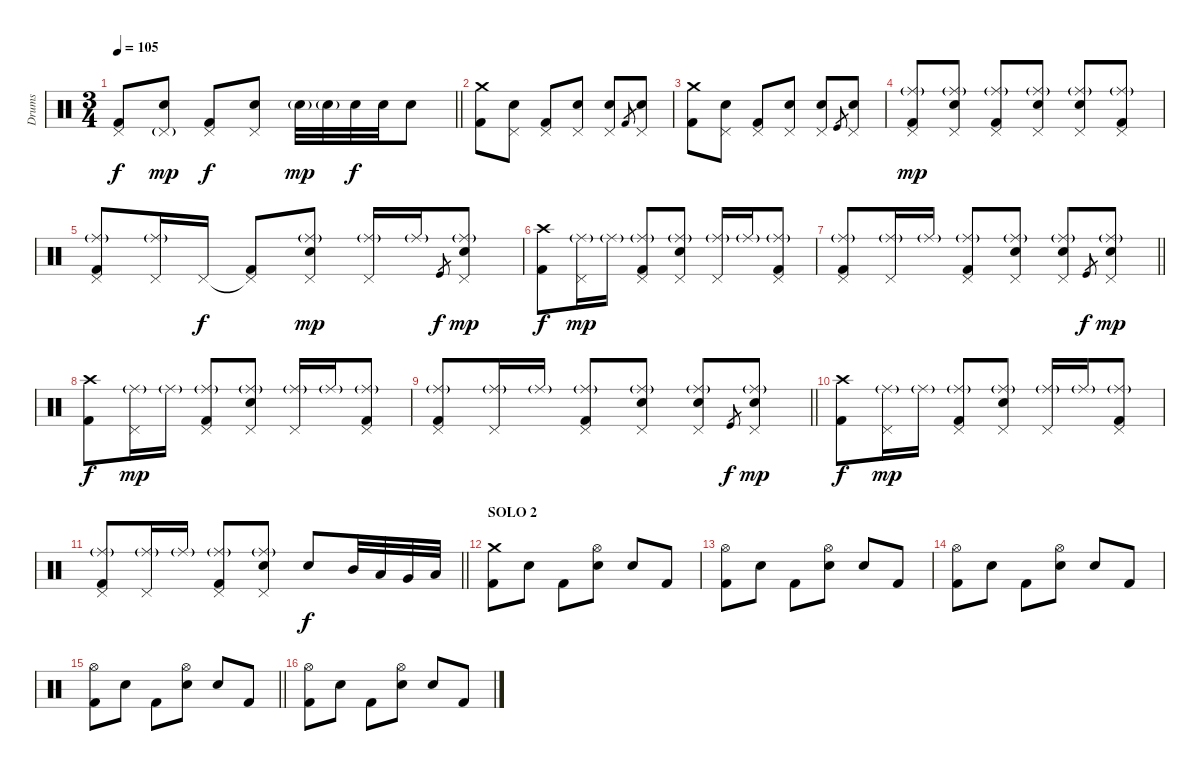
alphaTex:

\track ("Drums" "Drums") {instrument percussion}
\staff {score}
\articulation defaults
\ts (3 4)
\tempo 105
\clef neutral
\barLineRight lightlight
\ks c
("Pedal Hi-Hat (hit)" "Kick (hit) 2").8{dy f} ("Pedal Hi-Hat (hit)"{g} "Snare (hit)").8{dy mp} ("Pedal Hi-Hat (hit)" "Kick (hit) 2").8{dy f} ("Pedal Hi-Hat (hit)" "Electric Snare (hit)").8 "Electric Snare (hit)"{g}.32{dy mp} "Electric Snare (hit)"{g}.32 "Electric Snare (hit)".32{dy f} "Electric Snare (hit)".32 "Electric Snare (hit)".8 |
\section ("" "")
("Crash medium (hit)" "Kick (hit) 2").8 ("Pedal Hi-Hat (hit)" "Snare (hit)").8 ("Pedal Hi-Hat (hit)" "Kick (hit) 2").8 ("Pedal Hi-Hat (hit)" "Electric Snare (hit)").8 ("Pedal Hi-Hat (hit)" "Snare (hit)").8 "Kick (hit) 2".8{gr} ("Pedal Hi-Hat (hit)" "Electric Snare (hit)").8 |
("Crash medium (hit)" "Kick (hit) 2").8 ("Pedal Hi-Hat (hit)" "Snare (hit)").8 ("Pedal Hi-Hat (hit)" "Kick (hit) 2").8 ("Pedal Hi-Hat (hit)" "Electric Snare (hit)").8 ("Pedal Hi-Hat (hit)" "Snare (hit)").8 "Kick (hit)".8{gr} ("Pedal Hi-Hat (hit)" "Electric Snare (hit)").8 |
("Ride (middle)"{g} "Pedal Hi-Hat (hit)" "Kick (hit) 2").8{dy mp} ("Ride (middle)"{g} "Pedal Hi-Hat (hit)" "Snare (hit)").8 ("Ride (middle)"{g} "Pedal Hi-Hat (hit)" "Kick (hit) 2").8 ("Ride (middle)"{g} "Pedal Hi-Hat (hit)" "Electric Snare (hit)").8 ("Ride (middle)"{g} "Pedal Hi-Hat (hit)" "Snare (hit)").8 ("Ride (middle)"{g} "Pedal Hi-Hat (hit)" "Kick (hit) 2").8 |
("Ride (middle)"{g} "Pedal Hi-Hat (hit)" "Kick (hit) 2").8 ("Ride (middle)"{g} "Pedal Hi-Hat (hit)").16 "Pedal Hi-Hat (hit)".16{dy f} ("Pedal Hi-Hat (hit)"{t} "Kick (hit) 2").8 ("Ride (middle)"{g} "Pedal Hi-Hat (hit)" "Electric Snare (hit)").8{dy mp} ("Ride (middle)"{g} "Pedal Hi-Hat (hit)").16 "Ride (middle)"{g}.16 "Kick (hit)".8{gr dy f} ("Ride (middle)"{g} "Pedal Hi-Hat (hit)" "Electric Snare (hit)").8{dy mp} |
("Crash high (hit)" "Kick (hit) 2").8{dy f} ("Ride (middle)"{g} "Pedal Hi-Hat (hit)").16{dy mp} "Ride (middle)"{g}.16 ("Ride (middle)"{g} "Pedal Hi-Hat (hit)" "Kick (hit) 2").8 ("Ride (middle)"{g} "Pedal Hi-Hat (hit)" "Electric Snare (hit)").8 ("Ride (middle)"{g} "Pedal Hi-Hat (hit)").16 "Ride (middle)"{g}.16 ("Ride (middle)"{g} "Pedal Hi-Hat (hit)" "Kick (hit) 2").8 |
\barLineRight lightlight
("Ride (middle)"{g} "Pedal Hi-Hat (hit)" "Kick (hit) 2").8 ("Ride (middle)"{g} "Pedal Hi-Hat (hit)").16 "Ride (middle)"{g}.16 ("Ride (middle)"{g} "Pedal Hi-Hat (hit)" "Kick (hit) 2").8 ("Ride (middle)"{g} "Pedal Hi-Hat (hit)" "Electric Snare (hit)").8 ("Ride (middle)"{g} "Pedal Hi-Hat (hit)" "Snare (hit)").8 "Kick (hit)".8{gr dy f} ("Ride (middle)"{g} "Pedal Hi-Hat (hit)" "Electric Snare (hit)").8{dy mp} |
("Crash high (hit)" "Kick (hit) 2").8{dy f} ("Ride (middle)"{g} "Pedal Hi-Hat (hit)").16{dy mp} "Ride (middle)"{g}.16 ("Ride (middle)"{g} "Pedal Hi-Hat (hit)" "Kick (hit) 2").8 ("Ride (middle)"{g} "Pedal Hi-Hat (hit)" "Electric Snare (hit)").8 ("Ride (middle)"{g} "Pedal Hi-Hat (hit)").16 "Ride (middle)"{g}.16 ("Ride (middle)"{g} "Pedal Hi-Hat (hit)" "Kick (hit) 2").8 |
\barLineRight lightlight
("Ride (middle)"{g} "Pedal Hi-Hat (hit)" "Kick (hit) 2").8 ("Ride (middle)"{g} "Pedal Hi-Hat (hit)").16 "Ride (middle)"{g}.16 ("Ride (middle)"{g} "Pedal Hi-Hat (hit)" "Kick (hit) 2").8 ("Ride (middle)"{g} "Pedal Hi-Hat (hit)" "Electric Snare (hit)").8 ("Ride (middle)"{g} "Pedal Hi-Hat (hit)" "Snare (hit)").8 "Kick (hit)".8{gr dy f} ("Ride (middle)"{g} "Pedal Hi-Hat (hit)" "Electric Snare (hit)").8{dy mp} |
("Crash high (hit)" "Kick (hit) 2").8{dy f} ("Ride (middle)"{g} "Pedal Hi-Hat (hit)").16{dy mp} "Ride (middle)"{g}.16 ("Ride (middle)"{g} "Pedal Hi-Hat (hit)" "Kick (hit) 2").8 ("Ride (middle)"{g} "Pedal Hi-Hat (hit)" "Electric Snare (hit)").8 ("Ride (middle)"{g} "Pedal Hi-Hat (hit)").16 "Ride (middle)"{g}.16 ("Ride (middle)"{g} "Pedal Hi-Hat (hit)" "Kick (hit) 2").8 |
\barLineRight lightlight
("Ride (middle)"{g} "Pedal Hi-Hat (hit)" "Kick (hit) 2").8 ("Ride (middle)"{g} "Pedal Hi-Hat (hit)").16 "Ride (middle)"{g}.16 ("Ride (middle)"{g} "Pedal Hi-Hat (hit)" "Kick (hit) 2").8 ("Ride (middle)"{g} "Pedal Hi-Hat (hit)" "Electric Snare (hit)").8 "Electric Snare (hit)".8{dy f} "Mid Tom (hit)".32 "Low Tom (hit)".32 "Very Low Tom (hit)".32 "Low Floor Tom (hit)".32 |
\section ("" "SOLO 2")
("Crash medium (hit)" "Kick (hit) 2").8 "Snare (hit)".8 "Kick (hit) 2".8 ("Hi-Hat (open)" "Electric Snare (hit)").8 "Snare (hit)".8 "Kick (hit) 2".8 |
("Hi-Hat (open)" "Kick (hit) 2").8 "Snare (hit)".8 "Kick (hit) 2".8 ("Hi-Hat (open)" "Electric Snare (hit)").8 "Snare (hit)".8 "Kick (hit) 2".8 |
("Hi-Hat (open)" "Kick (hit) 2").8 "Snare (hit)".8 "Kick (hit) 2".8 ("Hi-Hat (open)" "Electric Snare (hit)").8 "Snare (hit)".8 "Kick (hit) 2".8 |
\barLineRight lightlight
("Hi-Hat (open)" "Kick (hit) 2").8 "Snare (hit)".8 "Kick (hit) 2".8 ("Hi-Hat (open)" "Electric Snare (hit)").8 "Snare (hit)".8 "Kick (hit) 2".8 |
("Hi-Hat (open)" "Kick (hit) 2").8 "Snare (hit)".8 "Kick (hit) 2".8 ("Hi-Hat (open)" "Electric Snare (hit)").8 "Snare (hit)".8 "Kick (hit) 2".8
